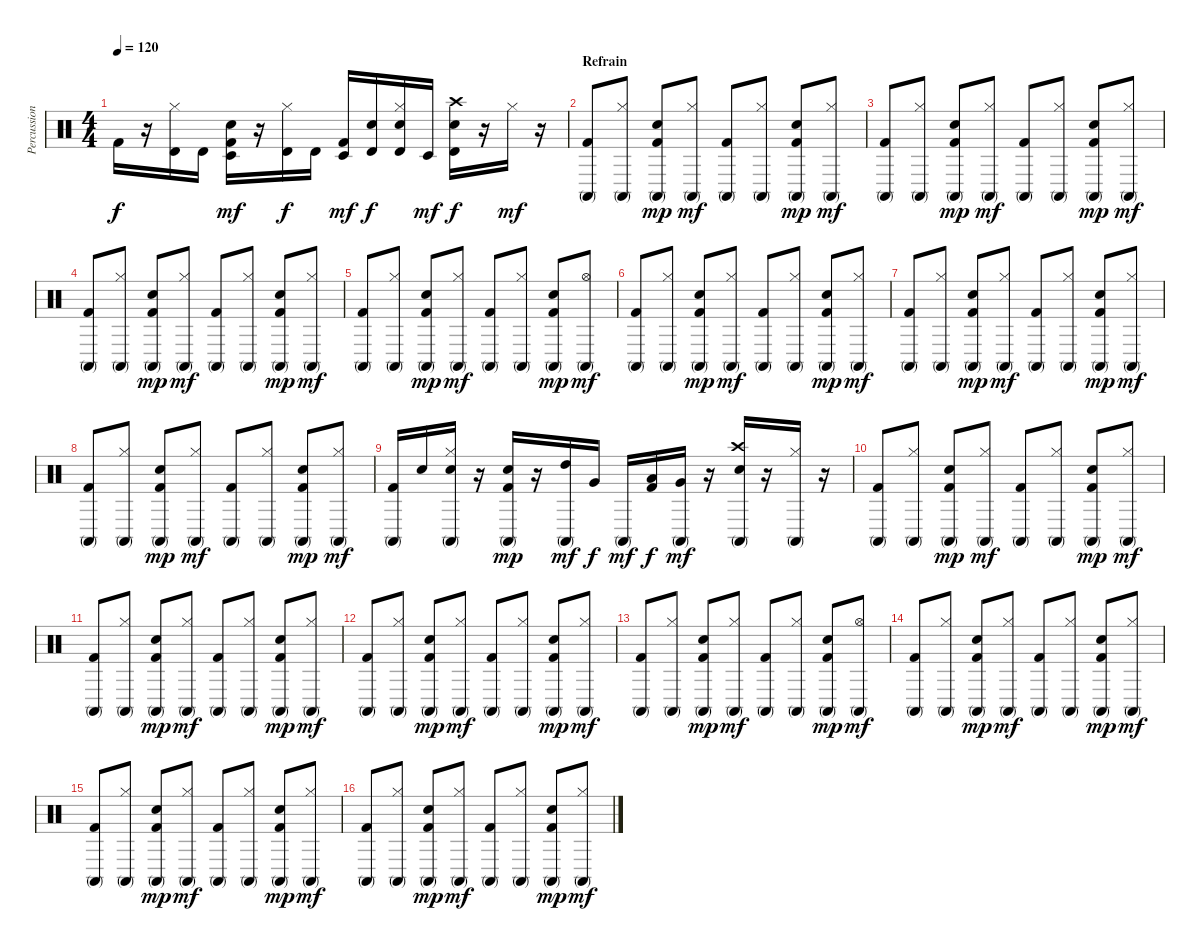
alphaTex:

\track ("Percussions" "Percussion") {instrument percussion}
\staff {score}
\articulation defaults
\ts (4 4)
\tempo 120
\clef neutral
\ks c "Kick (hit) 2".16{dy f}
r.16 ("Hi-Hat (closed)" "Timbale high (hit)").16 "Timbale high (hit)".16 ("Timbale low (hit)" "Electric Snare (hit)" "Kick (hit) 2").16{dy mf} r.16 ("Hi-Hat (closed)" "Timbale high (hit)").16{dy f} "Timbale high (hit)".16 ("Timbale low (hit)" "Kick (hit) 2").16{dy mf} ("Timbale high (hit)" "Electric Snare (hit)").16{dy f} ("Hi-Hat (closed)" "Timbale high (hit)" "Electric Snare (hit)").16 "Timbale low (hit)".16{dy mf} ("Crash high (hit)" "Timbale high (hit)" "Electric Snare (hit)").16{dy f} r.16 "Hi-Hat (closed)".16{dy mf} r.16 |
\section ("" "Refrain")
("Conga high (mute)" "Kick (hit) 2").8 ("Hi-Hat (closed)" "Conga high (mute)").8 ("Conga high (mute)" "Electric Snare (hit)" "Kick (hit) 2").8{dy mp} ("Hi-Hat (closed)" "Conga high (mute)").8{dy mf} ("Conga high (mute)" "Kick (hit) 2").8 ("Hi-Hat (closed)" "Conga high (mute)").8 ("Conga high (mute)" "Electric Snare (hit)" "Kick (hit) 2").8{dy mp} ("Hi-Hat (closed)" "Conga high (mute)").8{dy mf} |
("Conga high (mute)" "Kick (hit) 2").8 ("Hi-Hat (closed)" "Conga high (mute)").8 ("Conga high (mute)" "Electric Snare (hit)" "Kick (hit) 2").8{dy mp} ("Hi-Hat (closed)" "Conga high (mute)").8{dy mf} ("Conga high (mute)" "Kick (hit) 2").8 ("Hi-Hat (closed)" "Conga high (mute)").8 ("Conga high (mute)" "Electric Snare (hit)" "Kick (hit) 2").8{dy mp} ("Hi-Hat (closed)" "Conga high (mute)").8{dy mf} |
("Conga high (mute)" "Kick (hit) 2").8 ("Hi-Hat (closed)" "Conga high (mute)").8 ("Conga high (mute)" "Electric Snare (hit)" "Kick (hit) 2").8{dy mp} ("Hi-Hat (closed)" "Conga high (mute)").8{dy mf} ("Conga high (mute)" "Kick (hit) 2").8 ("Hi-Hat (closed)" "Conga high (mute)").8 ("Conga high (mute)" "Electric Snare (hit)" "Kick (hit) 2").8{dy mp} ("Hi-Hat (closed)" "Conga high (mute)").8{dy mf} |
("Conga high (mute)" "Kick (hit) 2").8 ("Hi-Hat (closed)" "Conga high (mute)").8 ("Conga high (mute)" "Electric Snare (hit)" "Kick (hit) 2").8{dy mp} ("Hi-Hat (closed)" "Conga high (mute)").8{dy mf} ("Conga high (mute)" "Kick (hit) 2").8 ("Hi-Hat (closed)" "Conga high (mute)").8 ("Conga high (mute)" "Electric Snare (hit)" "Kick (hit) 2").8{dy mp} ("Hi-Hat (open)" "Conga high (mute)").8{dy mf} |
("Conga high (mute)" "Kick (hit) 2").8 ("Hi-Hat (closed)" "Conga high (mute)").8 ("Conga high (mute)" "Electric Snare (hit)" "Kick (hit) 2").8{dy mp} ("Hi-Hat (closed)" "Conga high (mute)").8{dy mf} ("Conga high (mute)" "Kick (hit) 2").8 ("Hi-Hat (closed)" "Conga high (mute)").8 ("Conga high (mute)" "Electric Snare (hit)" "Kick (hit) 2").8{dy mp} ("Hi-Hat (closed)" "Conga high (mute)").8{dy mf} |
("Conga high (mute)" "Kick (hit) 2").8 ("Hi-Hat (closed)" "Conga high (mute)").8 ("Conga high (mute)" "Electric Snare (hit)" "Kick (hit) 2").8{dy mp} ("Hi-Hat (closed)" "Conga high (mute)").8{dy mf} ("Conga high (mute)" "Kick (hit) 2").8 ("Hi-Hat (closed)" "Conga high (mute)").8 ("Conga high (mute)" "Electric Snare (hit)" "Kick (hit) 2").8{dy mp} ("Hi-Hat (closed)" "Conga high (mute)").8{dy mf} |
("Conga high (mute)" "Kick (hit) 2").8 ("Hi-Hat (closed)" "Conga high (mute)").8 ("Conga high (mute)" "Electric Snare (hit)" "Kick (hit) 2").8{dy mp} ("Hi-Hat (closed)" "Conga high (mute)").8{dy mf} ("Conga high (mute)" "Kick (hit) 2").8 ("Hi-Hat (closed)" "Conga high (mute)").8 ("Conga high (mute)" "Electric Snare (hit)" "Kick (hit) 2").8{dy mp} ("Hi-Hat (closed)" "Conga high (mute)").8{dy mf} |
("Conga high (mute)" "Kick (hit) 2").16 "Electric Snare (hit)".16 ("Hi-Hat (closed)" "Conga high (mute)" "Electric Snare (hit)").16 r.16 ("Conga high (mute)" "Electric Snare (hit)" "Kick (hit) 2").16{dy mp} r.16 ("Conga high (mute)" "High Tom (hit)").16{dy mf} "Very Low Tom (hit)".16{dy f} "Conga high (mute)".16{dy mf} ("Low Tom (hit)" "Kick (hit) 2").16{dy f} ("Conga high (mute)" "Very Low Tom (hit)").16{dy mf} r.16 ("Crash high (hit)" "Conga high (mute)" "Electric Snare (hit)").16 r.16 ("Hi-Hat (closed)" "Conga high (mute)").16 r.16 |
("Conga high (mute)" "Kick (hit) 2").8 ("Hi-Hat (closed)" "Conga high (mute)").8 ("Conga high (mute)" "Electric Snare (hit)" "Kick (hit) 2").8{dy mp} ("Hi-Hat (closed)" "Conga high (mute)").8{dy mf} ("Conga high (mute)" "Kick (hit) 2").8 ("Hi-Hat (closed)" "Conga high (mute)").8 ("Conga high (mute)" "Electric Snare (hit)" "Kick (hit) 2").8{dy mp} ("Hi-Hat (closed)" "Conga high (mute)").8{dy mf} |
("Conga high (mute)" "Kick (hit) 2").8 ("Hi-Hat (closed)" "Conga high (mute)").8 ("Conga high (mute)" "Electric Snare (hit)" "Kick (hit) 2").8{dy mp} ("Hi-Hat (closed)" "Conga high (mute)").8{dy mf} ("Conga high (mute)" "Kick (hit) 2").8 ("Hi-Hat (closed)" "Conga high (mute)").8 ("Conga high (mute)" "Electric Snare (hit)" "Kick (hit) 2").8{dy mp} ("Hi-Hat (closed)" "Conga high (mute)").8{dy mf} |
("Conga high (mute)" "Kick (hit) 2").8 ("Hi-Hat (closed)" "Conga high (mute)").8 ("Conga high (mute)" "Electric Snare (hit)" "Kick (hit) 2").8{dy mp} ("Hi-Hat (closed)" "Conga high (mute)").8{dy mf} ("Conga high (mute)" "Kick (hit) 2").8 ("Hi-Hat (closed)" "Conga high (mute)").8 ("Conga high (mute)" "Electric Snare (hit)" "Kick (hit) 2").8{dy mp} ("Hi-Hat (closed)" "Conga high (mute)").8{dy mf} |
("Conga high (mute)" "Kick (hit) 2").8 ("Hi-Hat (closed)" "Conga high (mute)").8 ("Conga high (mute)" "Electric Snare (hit)" "Kick (hit) 2").8{dy mp} ("Hi-Hat (closed)" "Conga high (mute)").8{dy mf} ("Conga high (mute)" "Kick (hit) 2").8 ("Hi-Hat (closed)" "Conga high (mute)").8 ("Conga high (mute)" "Electric Snare (hit)" "Kick (hit) 2").8{dy mp} ("Hi-Hat (open)" "Conga high (mute)").8{dy mf} |
("Conga high (mute)" "Kick (hit) 2").8 ("Hi-Hat (closed)" "Conga high (mute)").8 ("Conga high (mute)" "Electric Snare (hit)" "Kick (hit) 2").8{dy mp} ("Hi-Hat (closed)" "Conga high (mute)").8{dy mf} ("Conga high (mute)" "Kick (hit) 2").8 ("Hi-Hat (closed)" "Conga high (mute)").8 ("Conga high (mute)" "Electric Snare (hit)" "Kick (hit) 2").8{dy mp} ("Hi-Hat (closed)" "Conga high (mute)").8{dy mf} |
("Conga high (mute)" "Kick (hit) 2").8 ("Hi-Hat (closed)" "Conga high (mute)").8 ("Conga high (mute)" "Electric Snare (hit)" "Kick (hit) 2").8{dy mp} ("Hi-Hat (closed)" "Conga high (mute)").8{dy mf} ("Conga high (mute)" "Kick (hit) 2").8 ("Hi-Hat (closed)" "Conga high (mute)").8 ("Conga high (mute)" "Electric Snare (hit)" "Kick (hit) 2").8{dy mp} ("Hi-Hat (closed)" "Conga high (mute)").8{dy mf} |
("Conga high (mute)" "Kick (hit) 2").8 ("Hi-Hat (closed)" "Conga high (mute)").8 ("Conga high (mute)" "Electric Snare (hit)" "Kick (hit) 2").8{dy mp} ("Hi-Hat (closed)" "Conga high (mute)").8{dy mf} ("Conga high (mute)" "Kick (hit) 2").8 ("Hi-Hat (closed)" "Conga high (mute)").8 ("Conga high (mute)" "Electric Snare (hit)" "Kick (hit) 2").8{dy mp} ("Hi-Hat (closed)" "Conga high (mute)").8{dy mf}
